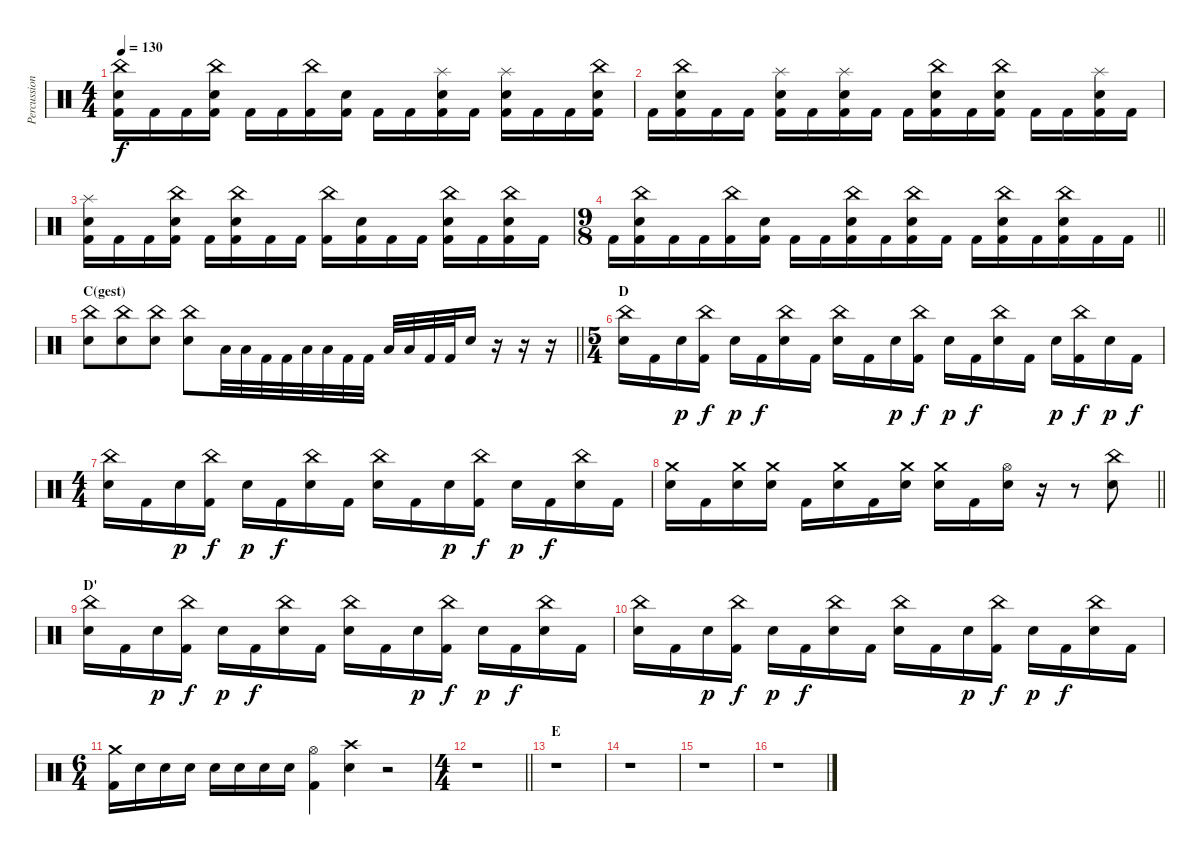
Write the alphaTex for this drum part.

\track ("Percussion" "Percussion") {instrument percussion}
\staff {score}
\articulation defaults
\ts (4 4)
\tempo 130
\clef neutral
\ks c
("China (hit)" "Electric Snare (hit)" "Kick (hit) 2").16{dy f} "Kick (hit) 2".16 "Kick (hit) 2".16 ("China (hit)" "Electric Snare (hit)" "Kick (hit) 2").16 "Kick (hit) 2".16 "Kick (hit) 2".16 ("China (hit)" "Kick (hit) 2").16 ("Electric Snare (hit)" "Kick (hit) 2").16 "Kick (hit) 2".16 "Kick (hit) 2".16 ("Splash (hit)" "Electric Snare (hit)" "Kick (hit) 2").16 "Kick (hit) 2".16 ("Splash (hit)" "Electric Snare (hit)" "Kick (hit) 2").16 "Kick (hit) 2".16 "Kick (hit) 2".16 ("China (hit)" "Electric Snare (hit)" "Kick (hit) 2").16 |
"Kick (hit) 2".16 ("China (hit)" "Electric Snare (hit)" "Kick (hit) 2").16 "Kick (hit) 2".16 "Kick (hit) 2".16 ("Splash (hit)" "Electric Snare (hit)" "Kick (hit) 2").16 "Kick (hit) 2".16 ("Splash (hit)" "Electric Snare (hit)" "Kick (hit) 2").16 "Kick (hit) 2".16 "Kick (hit) 2".16 ("China (hit)" "Electric Snare (hit)" "Kick (hit) 2").16 "Kick (hit) 2".16 ("China (hit)" "Electric Snare (hit)" "Kick (hit) 2").16 "Kick (hit) 2".16 "Kick (hit) 2".16 ("Splash (hit)" "Electric Snare (hit)" "Kick (hit) 2").16 "Kick (hit) 2".16 |
("Splash (hit)" "Electric Snare (hit)" "Kick (hit) 2").16 "Kick (hit) 2".16 "Kick (hit) 2".16 ("China (hit)" "Electric Snare (hit)" "Kick (hit) 2").16 "Kick (hit) 2".16 ("China (hit)" "Electric Snare (hit)" "Kick (hit) 2").16 "Kick (hit) 2".16 "Kick (hit) 2".16 ("China (hit)" "Kick (hit) 2").16 ("Electric Snare (hit)" "Kick (hit) 2").16 "Kick (hit) 2".16 "Kick (hit) 2".16 ("China (hit)" "Electric Snare (hit)" "Kick (hit) 2").16 "Kick (hit) 2".16 ("China (hit)" "Electric Snare (hit)" "Kick (hit) 2").16 "Kick (hit) 2".16 |
\ts (9 8)
\barLineRight lightlight "Kick (hit) 2".16
("China (hit)" "Electric Snare (hit)" "Kick (hit) 2").16 "Kick (hit) 2".16 "Kick (hit) 2".16 ("China (hit)" "Kick (hit) 2").16 ("Electric Snare (hit)" "Kick (hit) 2").16 "Kick (hit) 2".16 "Kick (hit) 2".16 ("China (hit)" "Electric Snare (hit)" "Kick (hit) 2").16 "Kick (hit) 2".16 ("China (hit)" "Electric Snare (hit)" "Kick (hit) 2").16 "Kick (hit) 2".16 "Kick (hit) 2".16 ("China (hit)" "Electric Snare (hit)" "Kick (hit) 2").16 "Kick (hit) 2".16 ("China (hit)" "Electric Snare (hit)" "Kick (hit) 2").16 "Kick (hit) 2".16 "Kick (hit) 2".16 |
\section ("" "C(gest)")
\barLineRight lightlight
("China (hit)" "Electric Snare (hit)").8 ("China (hit)" "Electric Snare (hit)").8 ("China (hit)" "Electric Snare (hit)").8 ("China (hit)" "Electric Snare (hit)").8 "Low Floor Tom (hit)".32 "Low Floor Tom (hit)".32 "Kick (hit) 2".32 "Kick (hit) 2".32 "Low Floor Tom (hit)".32 "Low Floor Tom (hit)".32 "Kick (hit) 2".32 "Kick (hit) 2".32 "Low Floor Tom (hit)".32 "Low Floor Tom (hit)".32 "Kick (hit) 2".32 "Kick (hit) 2".32 "Electric Snare (hit)".16 r.16 r.16 r.16 |
\ts (5 4)
\section ("" "D")
("China (hit)" "Electric Snare (hit)").16 "Kick (hit) 2".16 "Electric Snare (hit)".16{dy p} ("China (hit)" "Kick (hit) 2").16{dy f} "Electric Snare (hit)".16{dy p} "Kick (hit) 2".16{dy f} ("China (hit)" "Electric Snare (hit)").16 "Kick (hit) 2".16 ("China (hit)" "Electric Snare (hit)").16 "Kick (hit) 2".16 "Electric Snare (hit)".16{dy p} ("China (hit)" "Kick (hit) 2").16{dy f} "Electric Snare (hit)".16{dy p} "Kick (hit) 2".16{dy f} ("China (hit)" "Electric Snare (hit)").16 "Kick (hit) 2".16 "Electric Snare (hit)".16{dy p} ("China (hit)" "Kick (hit) 2").16{dy f} "Electric Snare (hit)".16{dy p} "Kick (hit) 2".16{dy f} |
\ts (4 4)
("China (hit)" "Electric Snare (hit)").16 "Kick (hit) 2".16 "Electric Snare (hit)".16{dy p} ("China (hit)" "Kick (hit) 2").16{dy f} "Electric Snare (hit)".16{dy p} "Kick (hit) 2".16{dy f} ("China (hit)" "Electric Snare (hit)").16 "Kick (hit) 2".16 ("China (hit)" "Electric Snare (hit)").16 "Kick (hit) 2".16 "Electric Snare (hit)".16{dy p} ("China (hit)" "Kick (hit) 2").16{dy f} "Electric Snare (hit)".16{dy p} "Kick (hit) 2".16{dy f} ("China (hit)" "Electric Snare (hit)").16 "Kick (hit) 2".16 |
\barLineRight lightlight
("Crash medium (hit)" "Electric Snare (hit)").16 "Kick (hit) 2".16 ("Crash medium (hit)" "Electric Snare (hit)").16 ("Crash medium (hit)" "Electric Snare (hit)").16 "Kick (hit) 2".16 ("Crash medium (hit)" "Electric Snare (hit)").16 "Kick (hit) 2".16 ("Crash medium (hit)" "Electric Snare (hit)").16 ("Crash medium (hit)" "Electric Snare (hit)").16 "Kick (hit) 2".16 ("Hi-Hat (open)" "Electric Snare (hit)").16 r.16 r.8 ("China (hit)" "Electric Snare (hit)").8 |
\section ("" "D'")
("China (hit)" "Electric Snare (hit)").16 "Kick (hit) 2".16 "Electric Snare (hit)".16{dy p} ("China (hit)" "Kick (hit) 2").16{dy f} "Electric Snare (hit)".16{dy p} "Kick (hit) 2".16{dy f} ("China (hit)" "Electric Snare (hit)").16 "Kick (hit) 2".16 ("China (hit)" "Electric Snare (hit)").16 "Kick (hit) 2".16 "Electric Snare (hit)".16{dy p} ("China (hit)" "Kick (hit) 2").16{dy f} "Electric Snare (hit)".16{dy p} "Kick (hit) 2".16{dy f} ("China (hit)" "Electric Snare (hit)").16 "Kick (hit) 2".16 |
("China (hit)" "Electric Snare (hit)").16 "Kick (hit) 2".16 "Electric Snare (hit)".16{dy p} ("China (hit)" "Kick (hit) 2").16{dy f} "Electric Snare (hit)".16{dy p} "Kick (hit) 2".16{dy f} ("China (hit)" "Electric Snare (hit)").16 "Kick (hit) 2".16 ("China (hit)" "Electric Snare (hit)").16 "Kick (hit) 2".16 "Electric Snare (hit)".16{dy p} ("China (hit)" "Kick (hit) 2").16{dy f} "Electric Snare (hit)".16{dy p} "Kick (hit) 2".16{dy f} ("China (hit)" "Electric Snare (hit)").16 "Kick (hit) 2".16 |
\ts (6 4)
("Crash medium (hit)" "Kick (hit) 2").16 "Electric Snare (hit)".16 "Electric Snare (hit)".16 "Electric Snare (hit)".16 "Electric Snare (hit)".16 "Electric Snare (hit)".16 "Electric Snare (hit)".16 "Electric Snare (hit)".16 ("Hi-Hat (open)" "Kick (hit) 2").4 ("Crash high (hit)" "Electric Snare (hit)").4 r.2 |
\ts (4 4)
\barLineRight lightlight
r.1 |
\section ("" "E")
r.1 |
r.1 |
r.1 |
r.1
